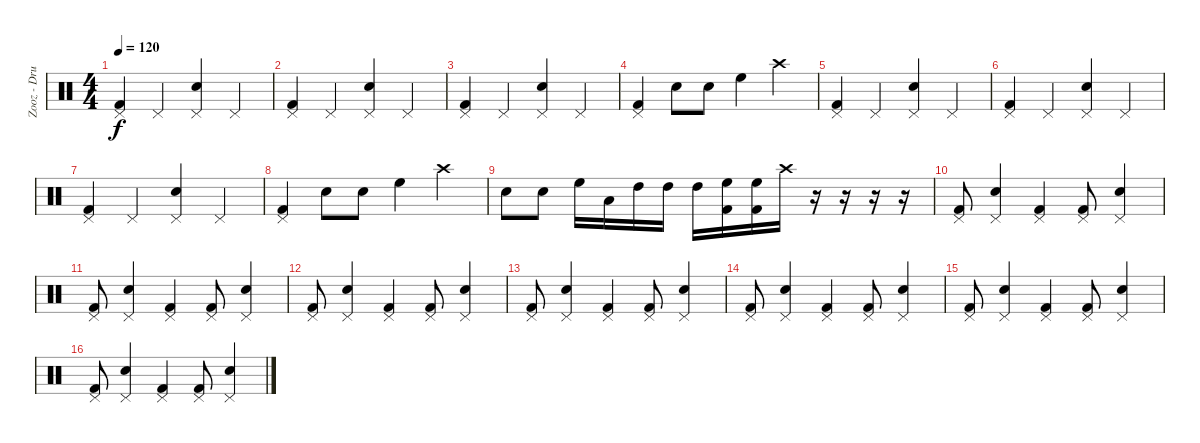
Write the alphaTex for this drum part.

\track ("Zooz - Drums" "Zooz - Dru") {instrument percussion}
\staff {score}
\articulation defaults
\ts (4 4)
\tempo 120
\clef neutral
\ks c
("Pedal Hi-Hat (hit)" "Kick (hit) 2").4{dy f} "Pedal Hi-Hat (hit)".4 ("Pedal Hi-Hat (hit)" "Electric Snare (hit)").4 "Pedal Hi-Hat (hit)".4 |
("Pedal Hi-Hat (hit)" "Kick (hit) 2").4 "Pedal Hi-Hat (hit)".4 ("Pedal Hi-Hat (hit)" "Electric Snare (hit)").4 "Pedal Hi-Hat (hit)".4 |
("Pedal Hi-Hat (hit)" "Kick (hit) 2").4 "Pedal Hi-Hat (hit)".4 ("Pedal Hi-Hat (hit)" "Electric Snare (hit)").4 "Pedal Hi-Hat (hit)".4 |
("Pedal Hi-Hat (hit)" "Kick (hit) 2").4 "Electric Snare (hit)".8 "Electric Snare (hit)".8 "High Floor Tom (hit)".4 "Crash high (hit)".4 |
("Pedal Hi-Hat (hit)" "Kick (hit) 2").4 "Pedal Hi-Hat (hit)".4 ("Pedal Hi-Hat (hit)" "Electric Snare (hit)").4 "Pedal Hi-Hat (hit)".4 |
("Pedal Hi-Hat (hit)" "Kick (hit) 2").4 "Pedal Hi-Hat (hit)".4 ("Pedal Hi-Hat (hit)" "Electric Snare (hit)").4 "Pedal Hi-Hat (hit)".4 |
("Pedal Hi-Hat (hit)" "Kick (hit) 2").4 "Pedal Hi-Hat (hit)".4 ("Pedal Hi-Hat (hit)" "Electric Snare (hit)").4 "Pedal Hi-Hat (hit)".4 |
("Pedal Hi-Hat (hit)" "Kick (hit) 2").4 "Electric Snare (hit)".8 "Electric Snare (hit)".8 "High Floor Tom (hit)".4 "Crash high (hit)".4 |
"Electric Snare (hit)".8 "Electric Snare (hit)".8 "High Floor Tom (hit)".16 "Low Tom (hit)".16 "High Tom (hit)".16 "High Tom (hit)".16 "High Tom (hit)".16 ("Kick (hit) 2" "High Floor Tom (hit)").16 ("Kick (hit) 2" "High Floor Tom (hit)").16 "Crash high (hit)".16 r.16 r.16 r.16 r.16 |
("Pedal Hi-Hat (hit)" "Kick (hit) 2").8 ("Pedal Hi-Hat (hit)" "Electric Snare (hit)").4 ("Pedal Hi-Hat (hit)" "Kick (hit) 2").4 ("Pedal Hi-Hat (hit)" "Kick (hit) 2").8 ("Electric Snare (hit)" "Pedal Hi-Hat (hit)").4 |
("Pedal Hi-Hat (hit)" "Kick (hit) 2").8 ("Pedal Hi-Hat (hit)" "Electric Snare (hit)").4 ("Pedal Hi-Hat (hit)" "Kick (hit) 2").4 ("Pedal Hi-Hat (hit)" "Kick (hit) 2").8 ("Electric Snare (hit)" "Pedal Hi-Hat (hit)").4 |
("Pedal Hi-Hat (hit)" "Kick (hit) 2").8 ("Pedal Hi-Hat (hit)" "Electric Snare (hit)").4 ("Pedal Hi-Hat (hit)" "Kick (hit) 2").4 ("Pedal Hi-Hat (hit)" "Kick (hit) 2").8 ("Electric Snare (hit)" "Pedal Hi-Hat (hit)").4 |
("Pedal Hi-Hat (hit)" "Kick (hit) 2").8 ("Pedal Hi-Hat (hit)" "Electric Snare (hit)").4 ("Pedal Hi-Hat (hit)" "Kick (hit) 2").4 ("Pedal Hi-Hat (hit)" "Kick (hit) 2").8 ("Electric Snare (hit)" "Pedal Hi-Hat (hit)").4 |
("Pedal Hi-Hat (hit)" "Kick (hit) 2").8 ("Pedal Hi-Hat (hit)" "Electric Snare (hit)").4 ("Pedal Hi-Hat (hit)" "Kick (hit) 2").4 ("Pedal Hi-Hat (hit)" "Kick (hit) 2").8 ("Electric Snare (hit)" "Pedal Hi-Hat (hit)").4 |
("Pedal Hi-Hat (hit)" "Kick (hit) 2").8 ("Pedal Hi-Hat (hit)" "Electric Snare (hit)").4 ("Pedal Hi-Hat (hit)" "Kick (hit) 2").4 ("Pedal Hi-Hat (hit)" "Kick (hit) 2").8 ("Electric Snare (hit)" "Pedal Hi-Hat (hit)").4 |
("Pedal Hi-Hat (hit)" "Kick (hit) 2").8 ("Pedal Hi-Hat (hit)" "Electric Snare (hit)").4 ("Pedal Hi-Hat (hit)" "Kick (hit) 2").4 ("Pedal Hi-Hat (hit)" "Kick (hit) 2").8 ("Electric Snare (hit)" "Pedal Hi-Hat (hit)").4
